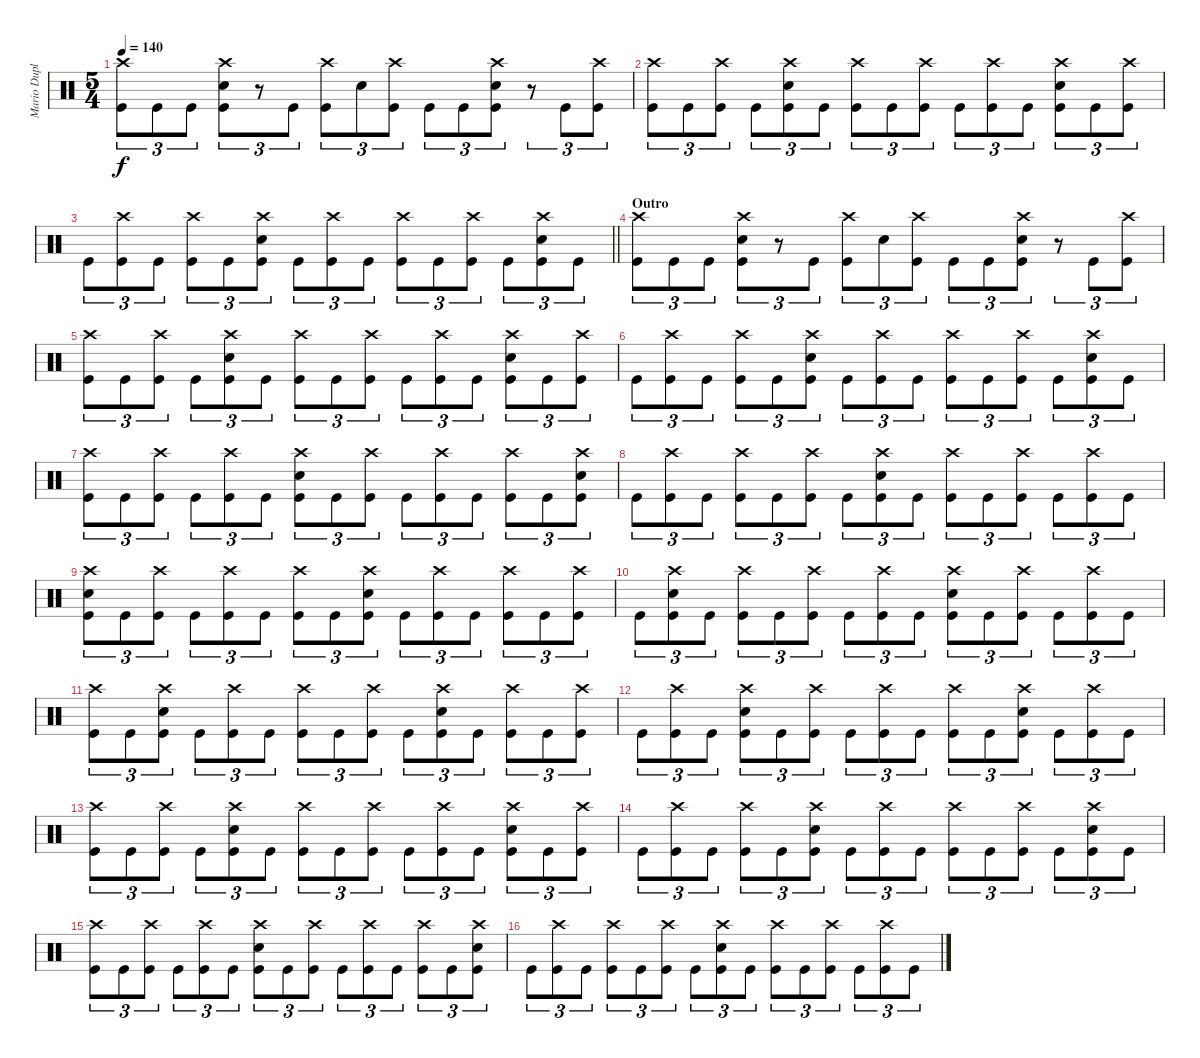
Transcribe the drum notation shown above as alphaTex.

\track ("Mario Duplantier" "Mario Dupl") {instrument percussion}
\staff {score}
\articulation defaults
\ts (5 4)
\tempo 140
\clef neutral
\ks c
("Crash high (hit)" "Kick (hit)").8{tu (3 2) dy f} "Kick (hit)".8{tu (3 2)} "Kick (hit)".8{tu (3 2)} ("Crash high (hit)" "Electric Snare (hit)" "Kick (hit)").8{tu (3 2)} r.8{tu (3 2)} "Kick (hit)".8{tu (3 2)} ("Crash high (hit)" "Kick (hit)").8{tu (3 2)} "Electric Snare (hit)".8{tu (3 2)} ("Crash high (hit)" "Kick (hit)").8{tu (3 2)} "Kick (hit)".8{tu (3 2)} "Kick (hit)".8{tu (3 2)} ("Crash high (hit)" "Electric Snare (hit)" "Kick (hit)").8{tu (3 2)} r.8{tu (3 2)} "Kick (hit)".8{tu (3 2)} ("Crash high (hit)" "Kick (hit)").8{tu (3 2)} |
("Crash high (hit)" "Kick (hit)").8{tu (3 2)} "Kick (hit)".8{tu (3 2)} ("Crash high (hit)" "Kick (hit)").8{tu (3 2)} "Kick (hit)".8{tu (3 2)} ("Crash high (hit)" "Electric Snare (hit)" "Kick (hit)").8{tu (3 2)} "Kick (hit)".8{tu (3 2)} ("Crash high (hit)" "Kick (hit)").8{tu (3 2)} "Kick (hit)".8{tu (3 2)} ("Crash high (hit)" "Kick (hit)").8{tu (3 2)} "Kick (hit)".8{tu (3 2)} ("Crash high (hit)" "Kick (hit)").8{tu (3 2)} "Kick (hit)".8{tu (3 2)} ("Crash high (hit)" "Electric Snare (hit)" "Kick (hit)").8{tu (3 2)} "Kick (hit)".8{tu (3 2)} ("Crash high (hit)" "Kick (hit)").8{tu (3 2)} |
\barLineRight lightlight "Kick (hit)".8{tu (3 2)}
("Crash high (hit)" "Kick (hit)").8{tu (3 2)} "Kick (hit)".8{tu (3 2)} ("Crash high (hit)" "Kick (hit)").8{tu (3 2)} "Kick (hit)".8{tu (3 2)} ("Crash high (hit)" "Electric Snare (hit)" "Kick (hit)").8{tu (3 2)} "Kick (hit)".8{tu (3 2)} ("Crash high (hit)" "Kick (hit)").8{tu (3 2)} "Kick (hit)".8{tu (3 2)} ("Crash high (hit)" "Kick (hit)").8{tu (3 2)} "Kick (hit)".8{tu (3 2)} ("Crash high (hit)" "Kick (hit)").8{tu (3 2)} "Kick (hit)".8{tu (3 2)} ("Crash high (hit)" "Electric Snare (hit)" "Kick (hit)").8{tu (3 2)} "Kick (hit)".8{tu (3 2)} |
\section ("" "Outro")
("Crash high (hit)" "Kick (hit)").8{tu (3 2)} "Kick (hit)".8{tu (3 2)} "Kick (hit)".8{tu (3 2)} ("Crash high (hit)" "Electric Snare (hit)" "Kick (hit)").8{tu (3 2)} r.8{tu (3 2)} "Kick (hit)".8{tu (3 2)} ("Crash high (hit)" "Kick (hit)").8{tu (3 2)} "Electric Snare (hit)".8{tu (3 2)} ("Crash high (hit)" "Kick (hit)").8{tu (3 2)} "Kick (hit)".8{tu (3 2)} "Kick (hit)".8{tu (3 2)} ("Crash high (hit)" "Electric Snare (hit)" "Kick (hit)").8{tu (3 2)} r.8{tu (3 2)} "Kick (hit)".8{tu (3 2)} ("Crash high (hit)" "Kick (hit)").8{tu (3 2)} |
("Crash high (hit)" "Kick (hit)").8{tu (3 2)} "Kick (hit)".8{tu (3 2)} ("Crash high (hit)" "Kick (hit)").8{tu (3 2)} "Kick (hit)".8{tu (3 2)} ("Crash high (hit)" "Electric Snare (hit)" "Kick (hit)").8{tu (3 2)} "Kick (hit)".8{tu (3 2)} ("Crash high (hit)" "Kick (hit)").8{tu (3 2)} "Kick (hit)".8{tu (3 2)} ("Crash high (hit)" "Kick (hit)").8{tu (3 2)} "Kick (hit)".8{tu (3 2)} ("Crash high (hit)" "Kick (hit)").8{tu (3 2)} "Kick (hit)".8{tu (3 2)} ("Crash high (hit)" "Electric Snare (hit)" "Kick (hit)").8{tu (3 2)} "Kick (hit)".8{tu (3 2)} ("Crash high (hit)" "Kick (hit)").8{tu (3 2)} |
"Kick (hit)".8{tu (3 2)} ("Crash high (hit)" "Kick (hit)").8{tu (3 2)} "Kick (hit)".8{tu (3 2)} ("Crash high (hit)" "Kick (hit)").8{tu (3 2)} "Kick (hit)".8{tu (3 2)} ("Crash high (hit)" "Electric Snare (hit)" "Kick (hit)").8{tu (3 2)} "Kick (hit)".8{tu (3 2)} ("Crash high (hit)" "Kick (hit)").8{tu (3 2)} "Kick (hit)".8{tu (3 2)} ("Crash high (hit)" "Kick (hit)").8{tu (3 2)} "Kick (hit)".8{tu (3 2)} ("Crash high (hit)" "Kick (hit)").8{tu (3 2)} "Kick (hit)".8{tu (3 2)} ("Crash high (hit)" "Electric Snare (hit)" "Kick (hit)").8{tu (3 2)} "Kick (hit)".8{tu (3 2)} |
("Crash high (hit)" "Kick (hit)").8{tu (3 2)} "Kick (hit)".8{tu (3 2)} ("Crash high (hit)" "Kick (hit)").8{tu (3 2)} "Kick (hit)".8{tu (3 2)} ("Crash high (hit)" "Kick (hit)").8{tu (3 2)} "Kick (hit)".8{tu (3 2)} ("Crash high (hit)" "Electric Snare (hit)" "Kick (hit)").8{tu (3 2)} "Kick (hit)".8{tu (3 2)} ("Crash high (hit)" "Kick (hit)").8{tu (3 2)} "Kick (hit)".8{tu (3 2)} ("Crash high (hit)" "Kick (hit)").8{tu (3 2)} "Kick (hit)".8{tu (3 2)} ("Crash high (hit)" "Kick (hit)").8{tu (3 2)} "Kick (hit)".8{tu (3 2)} ("Crash high (hit)" "Electric Snare (hit)" "Kick (hit)").8{tu (3 2)} |
"Kick (hit)".8{tu (3 2)} ("Crash high (hit)" "Kick (hit)").8{tu (3 2)} "Kick (hit)".8{tu (3 2)} ("Crash high (hit)" "Kick (hit)").8{tu (3 2)} "Kick (hit)".8{tu (3 2)} ("Crash high (hit)" "Kick (hit)").8{tu (3 2)} "Kick (hit)".8{tu (3 2)} ("Crash high (hit)" "Electric Snare (hit)" "Kick (hit)").8{tu (3 2)} "Kick (hit)".8{tu (3 2)} ("Crash high (hit)" "Kick (hit)").8{tu (3 2)} "Kick (hit)".8{tu (3 2)} ("Crash high (hit)" "Kick (hit)").8{tu (3 2)} "Kick (hit)".8{tu (3 2)} ("Crash high (hit)" "Kick (hit)").8{tu (3 2)} "Kick (hit)".8{tu (3 2)} |
("Crash high (hit)" "Electric Snare (hit)" "Kick (hit)").8{tu (3 2)} "Kick (hit)".8{tu (3 2)} ("Crash high (hit)" "Kick (hit)").8{tu (3 2)} "Kick (hit)".8{tu (3 2)} ("Crash high (hit)" "Kick (hit)").8{tu (3 2)} "Kick (hit)".8{tu (3 2)} ("Crash high (hit)" "Kick (hit)").8{tu (3 2)} "Kick (hit)".8{tu (3 2)} ("Crash high (hit)" "Electric Snare (hit)" "Kick (hit)").8{tu (3 2)} "Kick (hit)".8{tu (3 2)} ("Crash high (hit)" "Kick (hit)").8{tu (3 2)} "Kick (hit)".8{tu (3 2)} ("Crash high (hit)" "Kick (hit)").8{tu (3 2)} "Kick (hit)".8{tu (3 2)} ("Crash high (hit)" "Kick (hit)").8{tu (3 2)} |
"Kick (hit)".8{tu (3 2)} ("Crash high (hit)" "Electric Snare (hit)" "Kick (hit)").8{tu (3 2)} "Kick (hit)".8{tu (3 2)} ("Crash high (hit)" "Kick (hit)").8{tu (3 2)} "Kick (hit)".8{tu (3 2)} ("Crash high (hit)" "Kick (hit)").8{tu (3 2)} "Kick (hit)".8{tu (3 2)} ("Crash high (hit)" "Kick (hit)").8{tu (3 2)} "Kick (hit)".8{tu (3 2)} ("Crash high (hit)" "Electric Snare (hit)" "Kick (hit)").8{tu (3 2)} "Kick (hit)".8{tu (3 2)} ("Crash high (hit)" "Kick (hit)").8{tu (3 2)} "Kick (hit)".8{tu (3 2)} ("Crash high (hit)" "Kick (hit)").8{tu (3 2)} "Kick (hit)".8{tu (3 2)} |
("Crash high (hit)" "Kick (hit)").8{tu (3 2)} "Kick (hit)".8{tu (3 2)} ("Crash high (hit)" "Electric Snare (hit)" "Kick (hit)").8{tu (3 2)} "Kick (hit)".8{tu (3 2)} ("Crash high (hit)" "Kick (hit)").8{tu (3 2)} "Kick (hit)".8{tu (3 2)} ("Crash high (hit)" "Kick (hit)").8{tu (3 2)} "Kick (hit)".8{tu (3 2)} ("Crash high (hit)" "Kick (hit)").8{tu (3 2)} "Kick (hit)".8{tu (3 2)} ("Crash high (hit)" "Electric Snare (hit)" "Kick (hit)").8{tu (3 2)} "Kick (hit)".8{tu (3 2)} ("Crash high (hit)" "Kick (hit)").8{tu (3 2)} "Kick (hit)".8{tu (3 2)} ("Crash high (hit)" "Kick (hit)").8{tu (3 2)} |
"Kick (hit)".8{tu (3 2)} ("Crash high (hit)" "Kick (hit)").8{tu (3 2)} "Kick (hit)".8{tu (3 2)} ("Crash high (hit)" "Electric Snare (hit)" "Kick (hit)").8{tu (3 2)} "Kick (hit)".8{tu (3 2)} ("Crash high (hit)" "Kick (hit)").8{tu (3 2)} "Kick (hit)".8{tu (3 2)} ("Crash high (hit)" "Kick (hit)").8{tu (3 2)} "Kick (hit)".8{tu (3 2)} ("Crash high (hit)" "Kick (hit)").8{tu (3 2)} "Kick (hit)".8{tu (3 2)} ("Crash high (hit)" "Electric Snare (hit)" "Kick (hit)").8{tu (3 2)} "Kick (hit)".8{tu (3 2)} ("Crash high (hit)" "Kick (hit)").8{tu (3 2)} "Kick (hit)".8{tu (3 2)} |
("Crash high (hit)" "Kick (hit)").8{tu (3 2)} "Kick (hit)".8{tu (3 2)} ("Crash high (hit)" "Kick (hit)").8{tu (3 2)} "Kick (hit)".8{tu (3 2)} ("Crash high (hit)" "Electric Snare (hit)" "Kick (hit)").8{tu (3 2)} "Kick (hit)".8{tu (3 2)} ("Crash high (hit)" "Kick (hit)").8{tu (3 2)} "Kick (hit)".8{tu (3 2)} ("Crash high (hit)" "Kick (hit)").8{tu (3 2)} "Kick (hit)".8{tu (3 2)} ("Crash high (hit)" "Kick (hit)").8{tu (3 2)} "Kick (hit)".8{tu (3 2)} ("Crash high (hit)" "Electric Snare (hit)" "Kick (hit)").8{tu (3 2)} "Kick (hit)".8{tu (3 2)} ("Crash high (hit)" "Kick (hit)").8{tu (3 2)} |
"Kick (hit)".8{tu (3 2)} ("Crash high (hit)" "Kick (hit)").8{tu (3 2)} "Kick (hit)".8{tu (3 2)} ("Crash high (hit)" "Kick (hit)").8{tu (3 2)} "Kick (hit)".8{tu (3 2)} ("Crash high (hit)" "Electric Snare (hit)" "Kick (hit)").8{tu (3 2)} "Kick (hit)".8{tu (3 2)} ("Crash high (hit)" "Kick (hit)").8{tu (3 2)} "Kick (hit)".8{tu (3 2)} ("Crash high (hit)" "Kick (hit)").8{tu (3 2)} "Kick (hit)".8{tu (3 2)} ("Crash high (hit)" "Kick (hit)").8{tu (3 2)} "Kick (hit)".8{tu (3 2)} ("Crash high (hit)" "Electric Snare (hit)" "Kick (hit)").8{tu (3 2)} "Kick (hit)".8{tu (3 2)} |
("Crash high (hit)" "Kick (hit)").8{tu (3 2)} "Kick (hit)".8{tu (3 2)} ("Crash high (hit)" "Kick (hit)").8{tu (3 2)} "Kick (hit)".8{tu (3 2)} ("Crash high (hit)" "Kick (hit)").8{tu (3 2)} "Kick (hit)".8{tu (3 2)} ("Crash high (hit)" "Electric Snare (hit)" "Kick (hit)").8{tu (3 2)} "Kick (hit)".8{tu (3 2)} ("Crash high (hit)" "Kick (hit)").8{tu (3 2)} "Kick (hit)".8{tu (3 2)} ("Crash high (hit)" "Kick (hit)").8{tu (3 2)} "Kick (hit)".8{tu (3 2)} ("Crash high (hit)" "Kick (hit)").8{tu (3 2)} "Kick (hit)".8{tu (3 2)} ("Crash high (hit)" "Electric Snare (hit)" "Kick (hit)").8{tu (3 2)} |
"Kick (hit)".8{tu (3 2)} ("Crash high (hit)" "Kick (hit)").8{tu (3 2)} "Kick (hit)".8{tu (3 2)} ("Crash high (hit)" "Kick (hit)").8{tu (3 2)} "Kick (hit)".8{tu (3 2)} ("Crash high (hit)" "Kick (hit)").8{tu (3 2)} "Kick (hit)".8{tu (3 2)} ("Crash high (hit)" "Electric Snare (hit)" "Kick (hit)").8{tu (3 2)} "Kick (hit)".8{tu (3 2)} ("Crash high (hit)" "Kick (hit)").8{tu (3 2)} "Kick (hit)".8{tu (3 2)} ("Crash high (hit)" "Kick (hit)").8{tu (3 2)} "Kick (hit)".8{tu (3 2)} ("Crash high (hit)" "Kick (hit)").8{tu (3 2)} "Kick (hit)".8{tu (3 2)}
